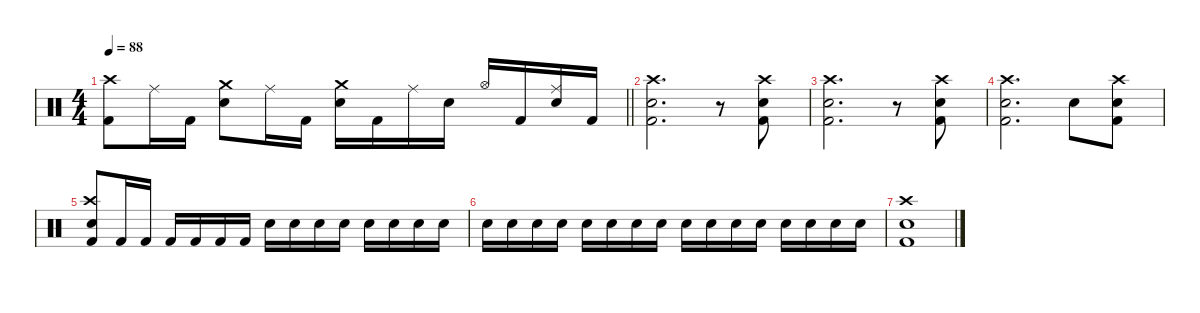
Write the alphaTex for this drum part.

\defaultSystemsLayout 4
\hideDynamics
\bracketExtendMode nobrackets
\singleTrackTrackNamePolicy hidden
\multiTrackTrackNamePolicy hidden
\firstSystemTrackNameMode fullname
\firstSystemTrackNameOrientation horizontal
\otherSystemsTrackNameOrientation horizontal
\track ("Drums" "drm.") {instrument percussion}
\staff {score}
\articulation defaults
\ts (4 4)
\tempo 88
\clef neutral
\barLineRight lightlight
\ks c
("Crash high (hit)" "Kick (hit) 2").8{dy f beam Down} "Ride (middle)".16{beam Down} "Kick (hit) 2".16{beam Down} ("Crash medium (hit)" "Snare (hit) 2").8{beam Down} "Ride (middle)".16{beam Down} "Kick (hit) 2".16{beam Down} ("Crash medium (hit)" "Snare (hit) 2").16{beam Down} "Kick (hit) 2".16{beam Down} "Ride (middle)".16{beam Down} "Snare (hit) 2".16{beam Down} "Hi-Hat (open)".16{beam Up} "Kick (hit) 2".16{beam Up} ("Ride (middle)" "Snare (hit) 2").16{beam Up} "Kick (hit) 2".16{beam Up} |
("Crash high (hit)" "Snare (hit) 2" "Kick (hit) 2").2{d beam Down} r.8{beam Down} ("Crash high (hit)" "Snare (hit) 2" "Kick (hit) 2").8{beam Down} |
("Crash high (hit)" "Snare (hit) 2" "Kick (hit) 2").2{d beam Down} r.8{beam Down} ("Crash high (hit)" "Snare (hit) 2" "Kick (hit) 2").8{beam Down} |
("Crash high (hit)" "Snare (hit) 2" "Kick (hit) 2").2{d beam Down} "Snare (hit) 2".8{beam Down} ("Crash high (hit)" "Snare (hit) 2" "Kick (hit) 2").8{beam Down} |
("Crash high (hit)" "Snare (hit) 2" "Kick (hit) 2").8{beam Up} "Kick (hit) 2".16{beam Up} "Kick (hit) 2".16{beam Up} "Kick (hit) 2".16{beam Up} "Kick (hit) 2".16{beam Up} "Kick (hit) 2".16{beam Up} "Kick (hit) 2".16{beam Up} "Snare (hit) 2".16{beam Down} "Snare (hit) 2".16{beam Down} "Snare (hit) 2".16{beam Down} "Snare (hit) 2".16{beam Down} "Snare (hit) 2".16{beam Down} "Snare (hit) 2".16{beam Down} "Snare (hit) 2".16{beam Down} "Snare (hit) 2".16{beam Down} |
"Snare (hit) 2".16{beam Down} "Snare (hit) 2".16{beam Down} "Snare (hit) 2".16{beam Down} "Snare (hit) 2".16{beam Down} "Snare (hit) 2".16{beam Down} "Snare (hit) 2".16{beam Down} "Snare (hit) 2".16{beam Down} "Snare (hit) 2".16{beam Down} "Snare (hit) 2".16{beam Down} "Snare (hit) 2".16{beam Down} "Snare (hit) 2".16{beam Down} "Snare (hit) 2".16{beam Down} "Snare (hit) 2".16{beam Down} "Snare (hit) 2".16{beam Down} "Snare (hit) 2".16{beam Down} "Snare (hit) 2".16{beam Down} |
("Crash high (hit)" "Snare (hit) 2" "Kick (hit) 2").1{beam Down}
